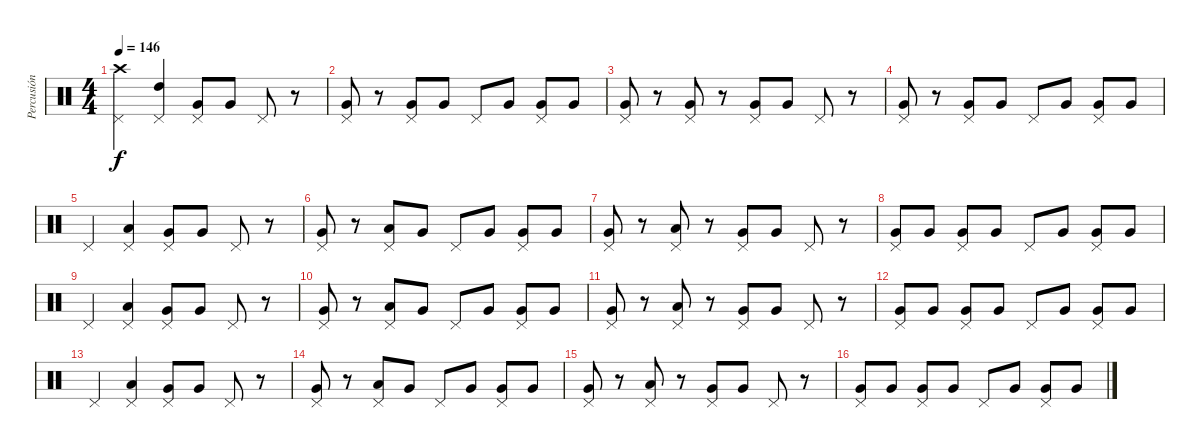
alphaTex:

\track ("Percusión" "Percusión") {instrument percussion}
\staff {score}
\articulation defaults
\ts (4 4)
\tempo 146
\clef neutral
\ks c
("Pedal Hi-Hat (hit)" "Crash high (hit)").4{dy f} ("Pedal Hi-Hat (hit)" "High Tom (hit)").4 ("Pedal Hi-Hat (hit)" "Very Low Tom (hit)").8 "Very Low Tom (hit)".8 "Pedal Hi-Hat (hit)".8 r.8 |
("Pedal Hi-Hat (hit)" "Very Low Tom (hit)").8 r.8 ("Pedal Hi-Hat (hit)" "Very Low Tom (hit)").8 "Very Low Tom (hit)".8 "Pedal Hi-Hat (hit)".8 "Very Low Tom (hit)".8 ("Pedal Hi-Hat (hit)" "Very Low Tom (hit)").8 "Very Low Tom (hit)".8 |
("Pedal Hi-Hat (hit)" "Very Low Tom (hit)").8 r.8 ("Pedal Hi-Hat (hit)" "Very Low Tom (hit)").8 r.8 ("Pedal Hi-Hat (hit)" "Very Low Tom (hit)").8 "Very Low Tom (hit)".8 "Pedal Hi-Hat (hit)".8 r.8 |
("Pedal Hi-Hat (hit)" "Very Low Tom (hit)").8 r.8 ("Pedal Hi-Hat (hit)" "Very Low Tom (hit)").8 "Very Low Tom (hit)".8 "Pedal Hi-Hat (hit)".8 "Very Low Tom (hit)".8 ("Pedal Hi-Hat (hit)" "Very Low Tom (hit)").8 "Very Low Tom (hit)".8 |
"Pedal Hi-Hat (hit)".4 ("Pedal Hi-Hat (hit)" "Low Tom (hit)").4 ("Pedal Hi-Hat (hit)" "Very Low Tom (hit)").8 "Very Low Tom (hit)".8 "Pedal Hi-Hat (hit)".8 r.8 |
("Pedal Hi-Hat (hit)" "Very Low Tom (hit)").8 r.8 ("Pedal Hi-Hat (hit)" "Low Tom (hit)").8 "Very Low Tom (hit)".8 "Pedal Hi-Hat (hit)".8 "Very Low Tom (hit)".8 ("Pedal Hi-Hat (hit)" "Very Low Tom (hit)").8 "Very Low Tom (hit)".8 |
("Pedal Hi-Hat (hit)" "Very Low Tom (hit)").8 r.8 ("Pedal Hi-Hat (hit)" "Low Tom (hit)").8 r.8 ("Pedal Hi-Hat (hit)" "Very Low Tom (hit)").8 "Very Low Tom (hit)".8 "Pedal Hi-Hat (hit)".8 r.8 |
("Pedal Hi-Hat (hit)" "Very Low Tom (hit)").8 "Very Low Tom (hit)".8 ("Pedal Hi-Hat (hit)" "Very Low Tom (hit)").8 "Very Low Tom (hit)".8 "Pedal Hi-Hat (hit)".8 "Very Low Tom (hit)".8 ("Pedal Hi-Hat (hit)" "Very Low Tom (hit)").8 "Very Low Tom (hit)".8 |
"Pedal Hi-Hat (hit)".4 ("Pedal Hi-Hat (hit)" "Low Tom (hit)").4 ("Pedal Hi-Hat (hit)" "Very Low Tom (hit)").8 "Very Low Tom (hit)".8 "Pedal Hi-Hat (hit)".8 r.8 |
("Pedal Hi-Hat (hit)" "Very Low Tom (hit)").8 r.8 ("Pedal Hi-Hat (hit)" "Low Tom (hit)").8 "Very Low Tom (hit)".8 "Pedal Hi-Hat (hit)".8 "Very Low Tom (hit)".8 ("Pedal Hi-Hat (hit)" "Very Low Tom (hit)").8 "Very Low Tom (hit)".8 |
("Pedal Hi-Hat (hit)" "Very Low Tom (hit)").8 r.8 ("Pedal Hi-Hat (hit)" "Low Tom (hit)").8 r.8 ("Pedal Hi-Hat (hit)" "Very Low Tom (hit)").8 "Very Low Tom (hit)".8 "Pedal Hi-Hat (hit)".8 r.8 |
("Pedal Hi-Hat (hit)" "Very Low Tom (hit)").8 "Very Low Tom (hit)".8 ("Pedal Hi-Hat (hit)" "Very Low Tom (hit)").8 "Very Low Tom (hit)".8 "Pedal Hi-Hat (hit)".8 "Very Low Tom (hit)".8 ("Pedal Hi-Hat (hit)" "Very Low Tom (hit)").8 "Very Low Tom (hit)".8 |
"Pedal Hi-Hat (hit)".4 ("Pedal Hi-Hat (hit)" "Low Tom (hit)").4 ("Pedal Hi-Hat (hit)" "Very Low Tom (hit)").8 "Very Low Tom (hit)".8 "Pedal Hi-Hat (hit)".8 r.8 |
("Pedal Hi-Hat (hit)" "Very Low Tom (hit)").8 r.8 ("Pedal Hi-Hat (hit)" "Low Tom (hit)").8 "Very Low Tom (hit)".8 "Pedal Hi-Hat (hit)".8 "Very Low Tom (hit)".8 ("Pedal Hi-Hat (hit)" "Very Low Tom (hit)").8 "Very Low Tom (hit)".8 |
("Pedal Hi-Hat (hit)" "Very Low Tom (hit)").8 r.8 ("Pedal Hi-Hat (hit)" "Low Tom (hit)").8 r.8 ("Pedal Hi-Hat (hit)" "Very Low Tom (hit)").8 "Very Low Tom (hit)".8 "Pedal Hi-Hat (hit)".8 r.8 |
("Pedal Hi-Hat (hit)" "Very Low Tom (hit)").8 "Very Low Tom (hit)".8 ("Pedal Hi-Hat (hit)" "Very Low Tom (hit)").8 "Very Low Tom (hit)".8 "Pedal Hi-Hat (hit)".8 "Very Low Tom (hit)".8 ("Pedal Hi-Hat (hit)" "Very Low Tom (hit)").8 "Very Low Tom (hit)".8
